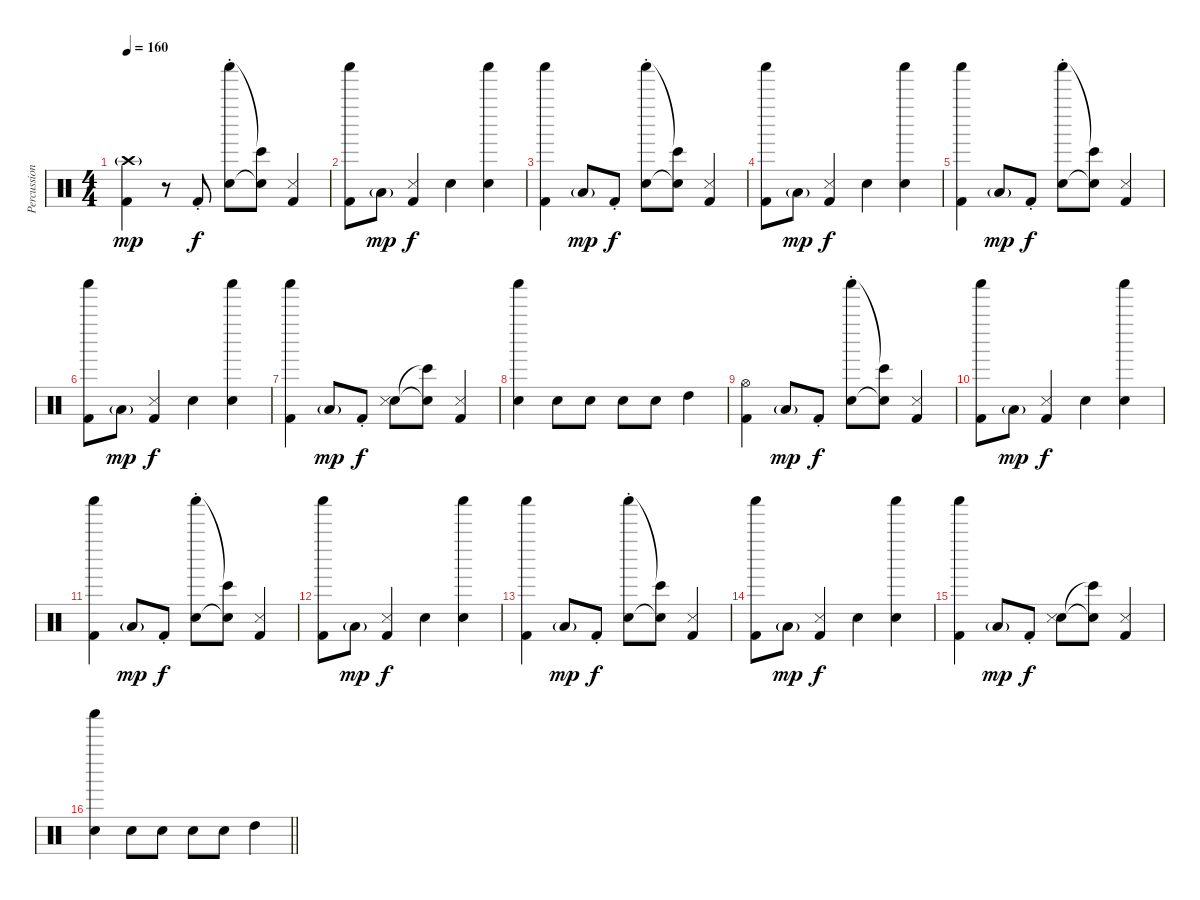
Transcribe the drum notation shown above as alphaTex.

\track ("Percussion" "Percussion") {instrument percussion}
\staff {score}
\articulation defaults
\ts (4 4)
\tempo 160
\clef neutral
\ks c
("Crash high (hit)"{g} "Kick (hit) 2").4{dy mp} r.8 "Kick (hit) 2"{st}.8{dy f} ("Electric Snare (hit)" "Shaker (hit)"{st}).8 ("Electric Snare (hit)"{t} "Bongo High (hit)"{t}).8 ("Kick (hit) 2" "Snare (side stick) 3").4 |
("Kick (hit) 2" "Shaker (hit)").8 "Low Tom (hit)"{g}.8{dy mp} ("Kick (hit) 2" "Snare (side stick) 3").4{dy f} "Electric Snare (hit)".4 ("Electric Snare (hit)" "Shaker (hit)").4 |
("Kick (hit) 2" "Shaker (hit)").4 "Low Tom (hit)"{g}.8{dy mp} "Kick (hit) 2"{st}.8{dy f} ("Electric Snare (hit)" "Shaker (hit)"{st}).8 ("Electric Snare (hit)"{t} "Bongo High (hit)"{t}).8 ("Kick (hit) 2" "Snare (side stick) 3").4 |
("Kick (hit) 2" "Shaker (hit)").8 "Low Tom (hit)"{g}.8{dy mp} ("Kick (hit) 2" "Snare (side stick) 3").4{dy f} "Electric Snare (hit)".4 ("Electric Snare (hit)" "Shaker (hit)").4 |
("Kick (hit) 2" "Shaker (hit)").4 "Low Tom (hit)"{g}.8{dy mp} "Kick (hit) 2"{st}.8{dy f} ("Electric Snare (hit)" "Shaker (hit)"{st}).8 ("Electric Snare (hit)"{t} "Bongo High (hit)"{t}).8 ("Kick (hit) 2" "Snare (side stick) 3").4 |
("Kick (hit) 2" "Shaker (hit)").8 "Low Tom (hit)"{g}.8{dy mp} ("Kick (hit) 2" "Snare (side stick) 3").4{dy f} "Electric Snare (hit)".4 ("Electric Snare (hit)" "Shaker (hit)").4 |
("Kick (hit) 2" "Shaker (hit)").4 "Low Tom (hit)"{g}.8{dy mp} "Kick (hit) 2"{st}.8{dy f} ("Electric Snare (hit)" "Snare (side stick) 3").8 ("Electric Snare (hit)"{t} "Bongo High (hit)"{t}).8 ("Kick (hit) 2" "Snare (side stick) 3").4 |
("Electric Snare (hit)" "Shaker (hit)").4 "Electric Snare (hit)".8 "Electric Snare (hit)".8 "Electric Snare (hit)".8 "Electric Snare (hit)".8 "High Tom (hit)".4 |
("Hi-Hat (open)" "Kick (hit) 2").4 "Low Tom (hit)"{g}.8{dy mp} "Kick (hit) 2"{st}.8{dy f} ("Electric Snare (hit)" "Shaker (hit)"{st}).8 ("Electric Snare (hit)"{t} "Bongo High (hit)"{t}).8 ("Kick (hit) 2" "Snare (side stick) 3").4 |
("Kick (hit) 2" "Shaker (hit)").8 "Low Tom (hit)"{g}.8{dy mp} ("Kick (hit) 2" "Snare (side stick) 3").4{dy f} "Electric Snare (hit)".4 ("Electric Snare (hit)" "Shaker (hit)").4 |
("Kick (hit) 2" "Shaker (hit)").4 "Low Tom (hit)"{g}.8{dy mp} "Kick (hit) 2"{st}.8{dy f} ("Electric Snare (hit)" "Shaker (hit)"{st}).8 ("Electric Snare (hit)"{t} "Bongo High (hit)"{t}).8 ("Kick (hit) 2" "Snare (side stick) 3").4 |
("Kick (hit) 2" "Shaker (hit)").8 "Low Tom (hit)"{g}.8{dy mp} ("Kick (hit) 2" "Snare (side stick) 3").4{dy f} "Electric Snare (hit)".4 ("Electric Snare (hit)" "Shaker (hit)").4 |
("Kick (hit) 2" "Shaker (hit)").4 "Low Tom (hit)"{g}.8{dy mp} "Kick (hit) 2"{st}.8{dy f} ("Electric Snare (hit)" "Shaker (hit)"{st}).8 ("Electric Snare (hit)"{t} "Bongo High (hit)"{t}).8 ("Kick (hit) 2" "Snare (side stick) 3").4 |
("Kick (hit) 2" "Shaker (hit)").8 "Low Tom (hit)"{g}.8{dy mp} ("Kick (hit) 2" "Snare (side stick) 3").4{dy f} "Electric Snare (hit)".4 ("Electric Snare (hit)" "Shaker (hit)").4 |
("Kick (hit) 2" "Shaker (hit)").4 "Low Tom (hit)"{g}.8{dy mp} "Kick (hit) 2"{st}.8{dy f} ("Electric Snare (hit)" "Snare (side stick) 3").8 ("Electric Snare (hit)"{t} "Bongo High (hit)"{t}).8 ("Kick (hit) 2" "Snare (side stick) 3").4 |
\barLineRight lightlight
("Electric Snare (hit)" "Shaker (hit)").4 "Electric Snare (hit)".8 "Electric Snare (hit)".8 "Electric Snare (hit)".8 "Electric Snare (hit)".8 "High Tom (hit)".4
